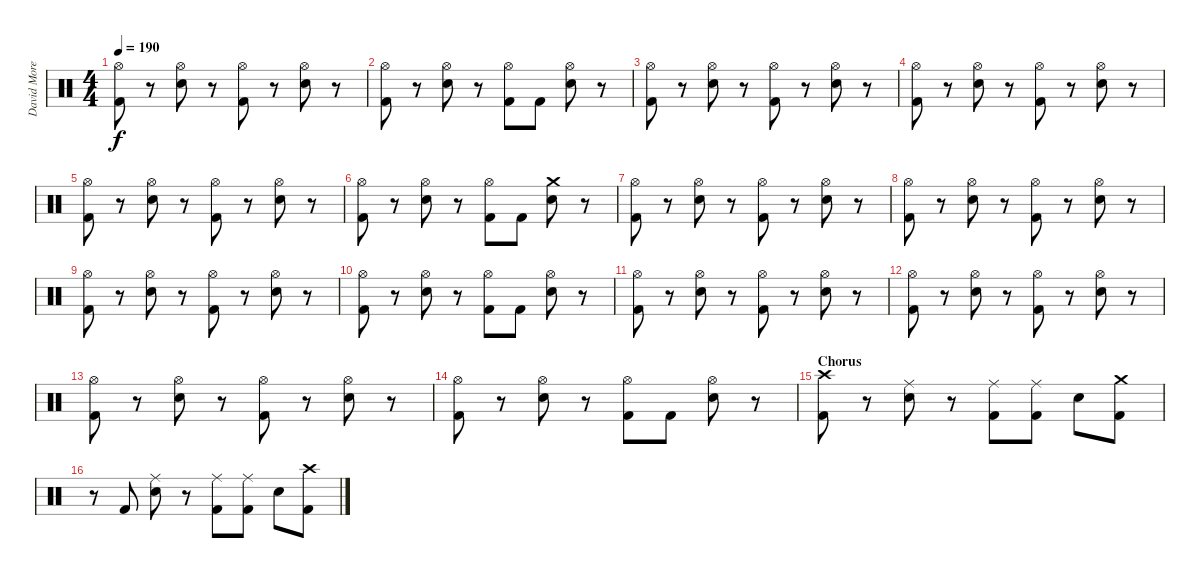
\track ("David Moreno" "David More") {instrument percussion}
\staff {score}
\articulation defaults
\ts (4 4)
\tempo 190
\clef neutral
\ks c
("Hi-Hat (open)" "Kick (hit) 2").8{dy f} r.8 ("Hi-Hat (open)" "Snare (hit) 2").8 r.8 ("Hi-Hat (open)" "Kick (hit) 2").8 r.8 ("Hi-Hat (open)" "Snare (hit) 2").8 r.8 |
("Hi-Hat (open)" "Kick (hit) 2").8 r.8 ("Hi-Hat (open)" "Snare (hit) 2").8 r.8 ("Hi-Hat (open)" "Kick (hit) 2").8 "Kick (hit) 2".8 ("Hi-Hat (open)" "Snare (hit) 2").8 r.8 |
("Hi-Hat (open)" "Kick (hit) 2").8 r.8 ("Hi-Hat (open)" "Snare (hit) 2").8 r.8 ("Hi-Hat (open)" "Kick (hit) 2").8 r.8 ("Hi-Hat (open)" "Snare (hit) 2").8 r.8 |
("Hi-Hat (open)" "Kick (hit) 2").8 r.8 ("Hi-Hat (open)" "Snare (hit) 2").8 r.8 ("Hi-Hat (open)" "Kick (hit) 2").8 r.8 ("Hi-Hat (open)" "Snare (hit) 2").8 r.8 |
("Hi-Hat (open)" "Kick (hit) 2").8 r.8 ("Hi-Hat (open)" "Snare (hit) 2").8 r.8 ("Hi-Hat (open)" "Kick (hit) 2").8 r.8 ("Hi-Hat (open)" "Snare (hit) 2").8 r.8 |
("Hi-Hat (open)" "Kick (hit) 2").8 r.8 ("Hi-Hat (open)" "Snare (hit) 2").8 r.8 ("Hi-Hat (open)" "Kick (hit) 2").8 "Kick (hit) 2".8 ("Crash medium (hit)" "Snare (hit) 2").8 r.8 |
("Hi-Hat (open)" "Kick (hit) 2").8 r.8 ("Hi-Hat (open)" "Snare (hit) 2").8 r.8 ("Hi-Hat (open)" "Kick (hit) 2").8 r.8 ("Hi-Hat (open)" "Snare (hit) 2").8 r.8 |
("Hi-Hat (open)" "Kick (hit) 2").8 r.8 ("Hi-Hat (open)" "Snare (hit) 2").8 r.8 ("Hi-Hat (open)" "Kick (hit) 2").8 r.8 ("Hi-Hat (open)" "Snare (hit) 2").8 r.8 |
("Hi-Hat (open)" "Kick (hit) 2").8 r.8 ("Hi-Hat (open)" "Snare (hit) 2").8 r.8 ("Hi-Hat (open)" "Kick (hit) 2").8 r.8 ("Hi-Hat (open)" "Snare (hit) 2").8 r.8 |
("Hi-Hat (open)" "Kick (hit) 2").8 r.8 ("Hi-Hat (open)" "Snare (hit) 2").8 r.8 ("Hi-Hat (open)" "Kick (hit) 2").8 "Kick (hit) 2".8 ("Hi-Hat (open)" "Snare (hit) 2").8 r.8 |
("Hi-Hat (open)" "Kick (hit) 2").8 r.8 ("Hi-Hat (open)" "Snare (hit) 2").8 r.8 ("Hi-Hat (open)" "Kick (hit) 2").8 r.8 ("Hi-Hat (open)" "Snare (hit) 2").8 r.8 |
("Hi-Hat (open)" "Kick (hit) 2").8 r.8 ("Hi-Hat (open)" "Snare (hit) 2").8 r.8 ("Hi-Hat (open)" "Kick (hit) 2").8 r.8 ("Hi-Hat (open)" "Snare (hit) 2").8 r.8 |
("Hi-Hat (open)" "Kick (hit) 2").8 r.8 ("Hi-Hat (open)" "Snare (hit) 2").8 r.8 ("Hi-Hat (open)" "Kick (hit) 2").8 r.8 ("Hi-Hat (open)" "Snare (hit) 2").8 r.8 |
("Hi-Hat (open)" "Kick (hit) 2").8 r.8 ("Hi-Hat (open)" "Snare (hit) 2").8 r.8 ("Hi-Hat (open)" "Kick (hit) 2").8 "Kick (hit) 2".8 ("Hi-Hat (open)" "Snare (hit) 2").8 r.8 |
\section ("" "Chorus")
("Crash high (hit)" "Kick (hit) 2").8 r.8 ("Ride (middle)" "Snare (hit) 2").8 r.8 ("Ride (middle)" "Kick (hit) 2").8 ("Ride (middle)" "Kick (hit) 2").8 "Snare (hit) 2".8 ("Crash medium (hit)" "Kick (hit) 2").8 |
r.8 "Kick (hit) 2".8 ("Ride (middle)" "Snare (hit) 2").8 r.8 ("Ride (middle)" "Kick (hit) 2").8 ("Ride (middle)" "Kick (hit) 2").8 "Snare (hit) 2".8 ("Crash high (hit)" "Kick (hit) 2").8
